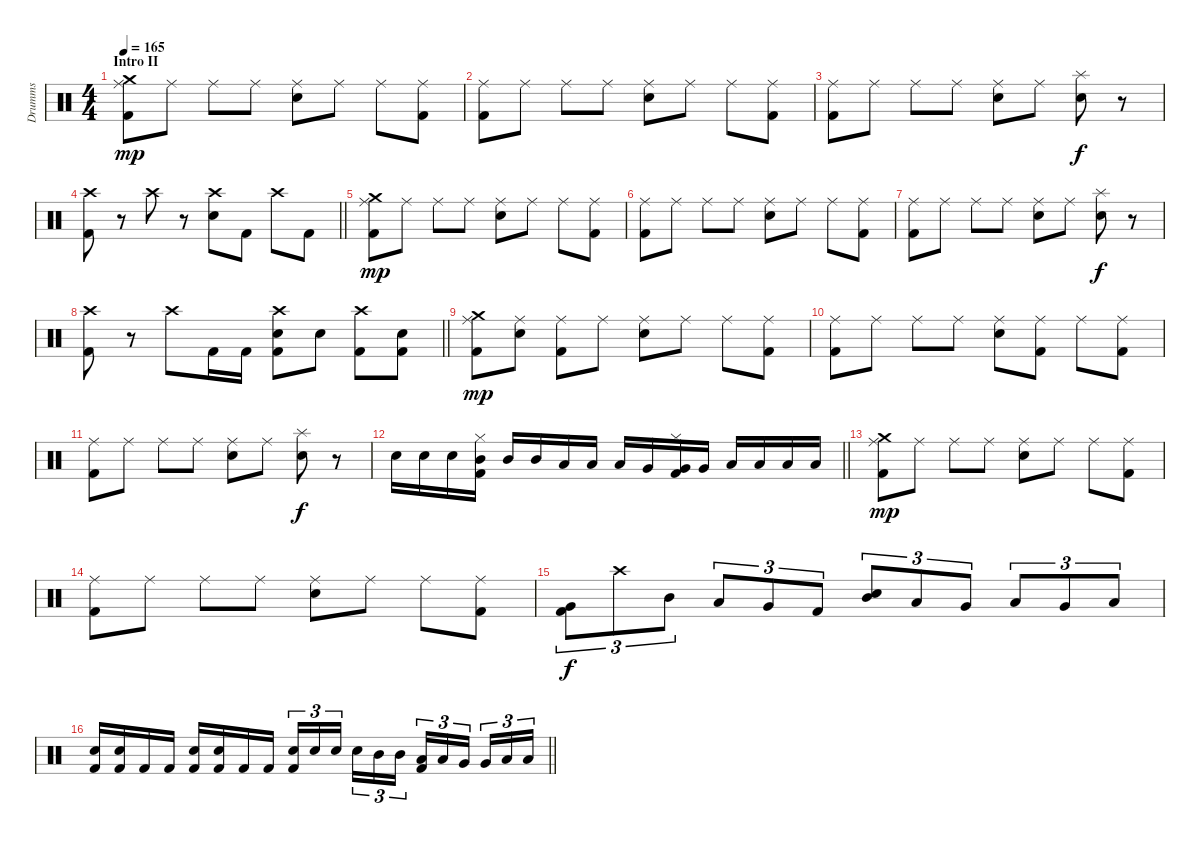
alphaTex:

\track ("Drumms" "Drumms") {instrument percussion}
\staff {score}
\articulation defaults
\ts (4 4)
\section ("" "Intro II")
\tempo 165
\clef neutral
\ks c
("Crash medium (hit)" "Ride (middle)" "Kick (hit) 2").8{dy mp} "Ride (middle)".8 "Ride (middle)".8 "Ride (middle)".8 ("Ride (middle)" "Snare (hit) 2").8 "Ride (middle)".8 "Ride (middle)".8 ("Ride (middle)" "Kick (hit) 2").8 |
("Ride (middle)" "Kick (hit) 2").8 "Ride (middle)".8 "Ride (middle)".8 "Ride (middle)".8 ("Ride (middle)" "Snare (hit) 2").8 "Ride (middle)".8 "Ride (middle)".8 ("Ride (middle)" "Kick (hit) 2").8 |
("Ride (middle)" "Kick (hit) 2").8 "Ride (middle)".8 "Ride (middle)".8 "Ride (middle)".8 ("Ride (middle)" "Snare (hit) 2").8 "Ride (middle)".8 ("Splash (hit)" "Snare (hit) 2").8{dy f} r.8 |
\barLineRight lightlight
("Crash high (hit)" "Kick (hit) 2").8 r.8 "Crash high (hit)".8 r.8 ("Crash high (hit)" "Snare (hit) 2").8 "Kick (hit) 2".8 "Crash high (hit)".8 "Kick (hit) 2".8 |
("Crash medium (hit)" "Ride (middle)" "Kick (hit) 2").8{dy mp} "Ride (middle)".8 "Ride (middle)".8 "Ride (middle)".8 ("Ride (middle)" "Snare (hit) 2").8 "Ride (middle)".8 "Ride (middle)".8 ("Ride (middle)" "Kick (hit) 2").8 |
("Ride (middle)" "Kick (hit) 2").8 "Ride (middle)".8 "Ride (middle)".8 "Ride (middle)".8 ("Ride (middle)" "Snare (hit) 2").8 "Ride (middle)".8 "Ride (middle)".8 ("Ride (middle)" "Kick (hit) 2").8 |
("Ride (middle)" "Kick (hit) 2").8 "Ride (middle)".8 "Ride (middle)".8 "Ride (middle)".8 ("Ride (middle)" "Snare (hit) 2").8 "Ride (middle)".8 ("Splash (hit)" "Snare (hit) 2").8{dy f} r.8 |
\barLineRight lightlight
("Crash high (hit)" "Kick (hit) 2").8 r.8 "Crash high (hit)".8 "Kick (hit) 2".16 "Kick (hit) 2".16 ("Crash high (hit)" "Snare (hit) 2" "Kick (hit) 2").8 "Snare (hit) 2".8 ("Crash high (hit)" "Kick (hit) 2").8 ("Snare (hit) 2" "Kick (hit) 2").8 |
("Crash medium (hit)" "Ride (middle)" "Kick (hit) 2").8{dy mp} ("Ride (middle)" "Snare (hit) 2").8 ("Ride (middle)" "Kick (hit) 2").8 "Ride (middle)".8 ("Ride (middle)" "Snare (hit) 2").8 "Ride (middle)".8 "Ride (middle)".8 ("Ride (middle)" "Kick (hit) 2").8 |
("Ride (middle)" "Kick (hit) 2").8 "Ride (middle)".8 "Ride (middle)".8 "Ride (middle)".8 ("Ride (middle)" "Snare (hit) 2").8 ("Ride (middle)" "Kick (hit) 2").8 "Ride (middle)".8 ("Ride (middle)" "Kick (hit) 2").8 |
("Ride (middle)" "Kick (hit) 2").8 "Ride (middle)".8 "Ride (middle)".8 "Ride (middle)".8 ("Ride (middle)" "Snare (hit) 2").8 "Ride (middle)".8 ("Splash (hit)" "Snare (hit) 2").8{dy f} r.8 |
\barLineRight lightlight "Snare (hit) 2".16 "Snare (hit) 2".16 "Snare (hit) 2".16
("Mid Tom (hit)" "Hi-Hat (closed)" "Kick (hit) 2").16 "Mid Tom (hit)".16 "Mid Tom (hit)".16 "Low Tom (hit)".16 "Low Tom (hit)".16 "Low Tom (hit)".16 "Very Low Tom (hit)".16 ("Hi-Hat (closed)" "Very Low Tom (hit)" "Kick (hit) 2").16 "Very Low Tom (hit)".16 "Low Floor Tom (hit)".16 "Low Floor Tom (hit)".16 "Low Floor Tom (hit)".16 "Low Floor Tom (hit)".16 |
("Crash medium (hit)" "Ride (middle)" "Kick (hit) 2").8{dy mp} "Ride (middle)".8 "Ride (middle)".8 "Ride (middle)".8 ("Ride (middle)" "Snare (hit) 2").8 "Ride (middle)".8 "Ride (middle)".8 ("Ride (middle)" "Kick (hit) 2").8 |
("Ride (middle)" "Kick (hit) 2").8 "Ride (middle)".8 "Ride (middle)".8 "Ride (middle)".8 ("Ride (middle)" "Snare (hit) 2").8 "Ride (middle)".8 "Ride (middle)".8 ("Ride (middle)" "Kick (hit) 2").8 |
("Very Low Tom (hit)" "Kick (hit) 2").8{tu (3 2) dy f} "Crash high (hit)".8{tu (3 2)} "Mid Tom (hit)".8{tu (3 2)} "Low Tom (hit)".8{tu (3 2)} "Very Low Tom (hit)".8{tu (3 2)} "Kick (hit) 2".8{tu (3 2)} ("Mid Tom (hit)" "Snare (hit) 2").8{tu (3 2)} "Low Tom (hit)".8{tu (3 2)} "Very Low Tom (hit)".8{tu (3 2)} "Low Tom (hit)".8{tu (3 2)} "Very Low Tom (hit)".8{tu (3 2)} "Low Floor Tom (hit)".8{tu (3 2)} |
\barLineRight lightlight
("Snare (hit) 2" "Kick (hit) 2").16 ("Snare (hit) 2" "Kick (hit) 2").16 "Kick (hit) 2".16 "Kick (hit) 2".16 ("Snare (hit) 2" "Kick (hit) 2").16 ("Snare (hit) 2" "Kick (hit) 2").16 "Kick (hit) 2".16 "Kick (hit) 2".16 ("Snare (hit) 2" "Kick (hit) 2").16{tu (3 2)} "Snare (hit) 2".16{tu (3 2)} "Snare (hit) 2".16{tu (3 2) beam splitsecondary} "Snare (hit) 2".16{tu (3 2)} "Mid Tom (hit)".16{tu (3 2)} "Mid Tom (hit)".16{tu (3 2)} ("Low Tom (hit)" "Kick (hit) 2").16{tu (3 2)} "Low Tom (hit)".16{tu (3 2)} "Very Low Tom (hit)".16{tu (3 2) beam splitsecondary} "Very Low Tom (hit)".16{tu (3 2)} "Low Floor Tom (hit)".16{tu (3 2)} "Low Floor Tom (hit)".16{tu (3 2)}
